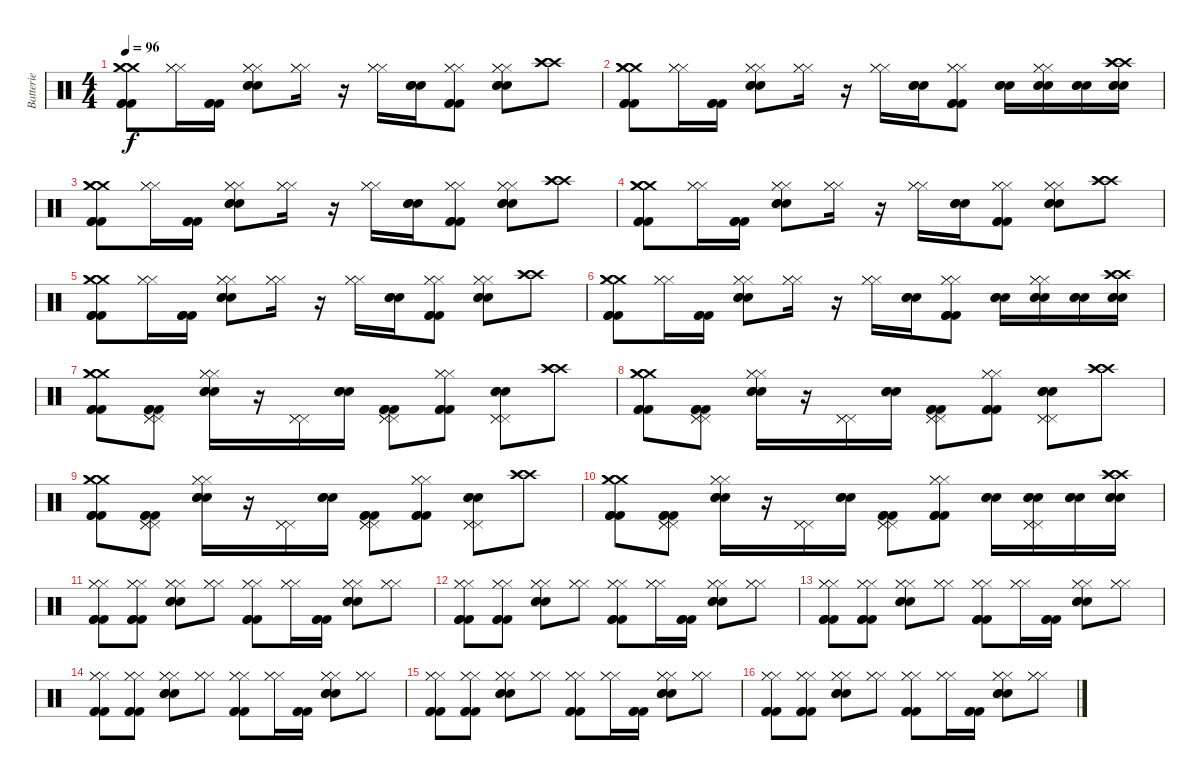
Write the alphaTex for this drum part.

\track ("Batterie" "Batterie") {instrument percussion}
\staff {score}
\articulation defaults
\ts (4 4)
\tempo 96
\clef neutral
\ks c
("Crash medium (hit)" "Crash medium (hit)" "Crash medium (hit)" "Kick (hit) 2" "Kick (hit) 2" "Kick (hit) 2").8{dy f} ("Hi-Hat (closed)" "Hi-Hat (closed)" "Hi-Hat (closed)").16 ("Kick (hit) 2" "Kick (hit) 2" "Kick (hit) 2").16 ("Hi-Hat (closed)" "Hi-Hat (closed)" "Hi-Hat (closed)" "Electric Snare (hit)" "Electric Snare (hit)" "Electric Snare (hit)").8 ("Hi-Hat (closed)" "Hi-Hat (closed)" "Hi-Hat (closed)").16 r.16 ("Hi-Hat (closed)" "Hi-Hat (closed)" "Hi-Hat (closed)").16 ("Electric Snare (hit)" "Electric Snare (hit)" "Electric Snare (hit)").16 ("Hi-Hat (closed)" "Hi-Hat (closed)" "Hi-Hat (closed)" "Kick (hit) 2" "Kick (hit) 2" "Kick (hit) 2").8 ("Hi-Hat (closed)" "Hi-Hat (closed)" "Hi-Hat (closed)" "Electric Snare (hit)" "Electric Snare (hit)" "Electric Snare (hit)").8 ("Crash high (hit)" "Crash high (hit)" "Crash high (hit)").8 |
("Crash medium (hit)" "Crash medium (hit)" "Crash medium (hit)" "Kick (hit) 2" "Kick (hit) 2" "Kick (hit) 2").8 ("Hi-Hat (closed)" "Hi-Hat (closed)" "Hi-Hat (closed)").16 ("Kick (hit) 2" "Kick (hit) 2" "Kick (hit) 2").16 ("Hi-Hat (closed)" "Hi-Hat (closed)" "Hi-Hat (closed)" "Electric Snare (hit)" "Electric Snare (hit)" "Electric Snare (hit)").8 ("Hi-Hat (closed)" "Hi-Hat (closed)" "Hi-Hat (closed)").16 r.16 ("Hi-Hat (closed)" "Hi-Hat (closed)" "Hi-Hat (closed)").16 ("Electric Snare (hit)" "Electric Snare (hit)" "Electric Snare (hit)").16 ("Hi-Hat (closed)" "Hi-Hat (closed)" "Hi-Hat (closed)" "Kick (hit) 2" "Kick (hit) 2" "Kick (hit) 2").8 ("Electric Snare (hit)" "Electric Snare (hit)" "Electric Snare (hit)").16 ("Hi-Hat (closed)" "Hi-Hat (closed)" "Hi-Hat (closed)" "Electric Snare (hit)" "Electric Snare (hit)" "Electric Snare (hit)").16 ("Electric Snare (hit)" "Electric Snare (hit)" "Electric Snare (hit)").16 ("Crash high (hit)" "Crash high (hit)" "Crash high (hit)" "Electric Snare (hit)" "Electric Snare (hit)" "Electric Snare (hit)").16 |
("Crash medium (hit)" "Crash medium (hit)" "Crash medium (hit)" "Kick (hit) 2" "Kick (hit) 2" "Kick (hit) 2").8 ("Hi-Hat (closed)" "Hi-Hat (closed)" "Hi-Hat (closed)").16 ("Kick (hit) 2" "Kick (hit) 2" "Kick (hit) 2").16 ("Hi-Hat (closed)" "Hi-Hat (closed)" "Hi-Hat (closed)" "Electric Snare (hit)" "Electric Snare (hit)" "Electric Snare (hit)").8 ("Hi-Hat (closed)" "Hi-Hat (closed)" "Hi-Hat (closed)").16 r.16 ("Hi-Hat (closed)" "Hi-Hat (closed)" "Hi-Hat (closed)").16 ("Electric Snare (hit)" "Electric Snare (hit)" "Electric Snare (hit)").16 ("Hi-Hat (closed)" "Hi-Hat (closed)" "Hi-Hat (closed)" "Kick (hit) 2" "Kick (hit) 2" "Kick (hit) 2").8 ("Hi-Hat (closed)" "Hi-Hat (closed)" "Hi-Hat (closed)" "Electric Snare (hit)" "Electric Snare (hit)" "Electric Snare (hit)").8 ("Crash high (hit)" "Crash high (hit)" "Crash high (hit)").8 |
("Crash medium (hit)" "Crash medium (hit)" "Crash medium (hit)" "Kick (hit) 2" "Kick (hit) 2" "Kick (hit) 2").8 ("Hi-Hat (closed)" "Hi-Hat (closed)" "Hi-Hat (closed)").16 ("Kick (hit) 2" "Kick (hit) 2" "Kick (hit) 2").16 ("Hi-Hat (closed)" "Hi-Hat (closed)" "Hi-Hat (closed)" "Electric Snare (hit)" "Electric Snare (hit)" "Electric Snare (hit)").8 ("Hi-Hat (closed)" "Hi-Hat (closed)" "Hi-Hat (closed)").16 r.16 ("Hi-Hat (closed)" "Hi-Hat (closed)" "Hi-Hat (closed)").16 ("Electric Snare (hit)" "Electric Snare (hit)" "Electric Snare (hit)").16 ("Hi-Hat (closed)" "Hi-Hat (closed)" "Hi-Hat (closed)" "Kick (hit) 2" "Kick (hit) 2" "Kick (hit) 2").8 ("Hi-Hat (closed)" "Hi-Hat (closed)" "Hi-Hat (closed)" "Electric Snare (hit)" "Electric Snare (hit)" "Electric Snare (hit)").8 ("Crash high (hit)" "Crash high (hit)" "Crash high (hit)").8 |
("Crash medium (hit)" "Crash medium (hit)" "Crash medium (hit)" "Kick (hit) 2" "Kick (hit) 2" "Kick (hit) 2").8 ("Hi-Hat (closed)" "Hi-Hat (closed)" "Hi-Hat (closed)").16 ("Kick (hit) 2" "Kick (hit) 2" "Kick (hit) 2").16 ("Hi-Hat (closed)" "Hi-Hat (closed)" "Hi-Hat (closed)" "Electric Snare (hit)" "Electric Snare (hit)" "Electric Snare (hit)").8 ("Hi-Hat (closed)" "Hi-Hat (closed)" "Hi-Hat (closed)").16 r.16 ("Hi-Hat (closed)" "Hi-Hat (closed)" "Hi-Hat (closed)").16 ("Electric Snare (hit)" "Electric Snare (hit)" "Electric Snare (hit)").16 ("Hi-Hat (closed)" "Hi-Hat (closed)" "Hi-Hat (closed)" "Kick (hit) 2" "Kick (hit) 2" "Kick (hit) 2").8 ("Hi-Hat (closed)" "Hi-Hat (closed)" "Hi-Hat (closed)" "Electric Snare (hit)" "Electric Snare (hit)" "Electric Snare (hit)").8 ("Crash high (hit)" "Crash high (hit)" "Crash high (hit)").8 |
("Crash medium (hit)" "Crash medium (hit)" "Crash medium (hit)" "Kick (hit) 2" "Kick (hit) 2" "Kick (hit) 2").8 ("Hi-Hat (closed)" "Hi-Hat (closed)" "Hi-Hat (closed)").16 ("Kick (hit) 2" "Kick (hit) 2" "Kick (hit) 2").16 ("Hi-Hat (closed)" "Hi-Hat (closed)" "Hi-Hat (closed)" "Electric Snare (hit)" "Electric Snare (hit)" "Electric Snare (hit)").8 ("Hi-Hat (closed)" "Hi-Hat (closed)" "Hi-Hat (closed)").16 r.16 ("Hi-Hat (closed)" "Hi-Hat (closed)" "Hi-Hat (closed)").16 ("Electric Snare (hit)" "Electric Snare (hit)" "Electric Snare (hit)").16 ("Hi-Hat (closed)" "Hi-Hat (closed)" "Hi-Hat (closed)" "Kick (hit) 2" "Kick (hit) 2" "Kick (hit) 2").8 ("Electric Snare (hit)" "Electric Snare (hit)" "Electric Snare (hit)").16 ("Hi-Hat (closed)" "Hi-Hat (closed)" "Hi-Hat (closed)" "Electric Snare (hit)" "Electric Snare (hit)" "Electric Snare (hit)").16 ("Electric Snare (hit)" "Electric Snare (hit)" "Electric Snare (hit)").16 ("Crash high (hit)" "Crash high (hit)" "Crash high (hit)" "Electric Snare (hit)" "Electric Snare (hit)" "Electric Snare (hit)").16 |
("Crash medium (hit)" "Crash medium (hit)" "Crash medium (hit)" "Kick (hit) 2" "Kick (hit) 2" "Kick (hit) 2").8 ("Pedal Hi-Hat (hit)" "Pedal Hi-Hat (hit)" "Pedal Hi-Hat (hit)" "Kick (hit) 2" "Kick (hit) 2" "Kick (hit) 2").8 ("Hi-Hat (closed)" "Hi-Hat (closed)" "Hi-Hat (closed)" "Electric Snare (hit)" "Electric Snare (hit)" "Electric Snare (hit)").16 r.16 ("Pedal Hi-Hat (hit)" "Pedal Hi-Hat (hit)" "Pedal Hi-Hat (hit)").16 ("Electric Snare (hit)" "Electric Snare (hit)" "Electric Snare (hit)").16 ("Pedal Hi-Hat (hit)" "Pedal Hi-Hat (hit)" "Pedal Hi-Hat (hit)" "Kick (hit) 2" "Kick (hit) 2" "Kick (hit) 2").8 ("Hi-Hat (closed)" "Hi-Hat (closed)" "Hi-Hat (closed)" "Kick (hit) 2" "Kick (hit) 2" "Kick (hit) 2").8 ("Pedal Hi-Hat (hit)" "Pedal Hi-Hat (hit)" "Pedal Hi-Hat (hit)" "Electric Snare (hit)" "Electric Snare (hit)" "Electric Snare (hit)").8 ("Crash high (hit)" "Crash high (hit)" "Crash high (hit)").8 |
("Crash medium (hit)" "Crash medium (hit)" "Crash medium (hit)" "Kick (hit) 2" "Kick (hit) 2" "Kick (hit) 2").8 ("Pedal Hi-Hat (hit)" "Pedal Hi-Hat (hit)" "Pedal Hi-Hat (hit)" "Kick (hit) 2" "Kick (hit) 2" "Kick (hit) 2").8 ("Hi-Hat (closed)" "Hi-Hat (closed)" "Hi-Hat (closed)" "Electric Snare (hit)" "Electric Snare (hit)" "Electric Snare (hit)").16 r.16 ("Pedal Hi-Hat (hit)" "Pedal Hi-Hat (hit)" "Pedal Hi-Hat (hit)").16 ("Electric Snare (hit)" "Electric Snare (hit)" "Electric Snare (hit)").16 ("Pedal Hi-Hat (hit)" "Pedal Hi-Hat (hit)" "Pedal Hi-Hat (hit)" "Kick (hit) 2" "Kick (hit) 2" "Kick (hit) 2").8 ("Hi-Hat (closed)" "Hi-Hat (closed)" "Hi-Hat (closed)" "Kick (hit) 2" "Kick (hit) 2" "Kick (hit) 2").8 ("Pedal Hi-Hat (hit)" "Pedal Hi-Hat (hit)" "Pedal Hi-Hat (hit)" "Electric Snare (hit)" "Electric Snare (hit)" "Electric Snare (hit)").8 ("Crash high (hit)" "Crash high (hit)" "Crash high (hit)").8 |
("Crash medium (hit)" "Crash medium (hit)" "Crash medium (hit)" "Kick (hit) 2" "Kick (hit) 2" "Kick (hit) 2").8 ("Pedal Hi-Hat (hit)" "Pedal Hi-Hat (hit)" "Pedal Hi-Hat (hit)" "Kick (hit) 2" "Kick (hit) 2" "Kick (hit) 2").8 ("Hi-Hat (closed)" "Hi-Hat (closed)" "Hi-Hat (closed)" "Electric Snare (hit)" "Electric Snare (hit)" "Electric Snare (hit)").16 r.16 ("Pedal Hi-Hat (hit)" "Pedal Hi-Hat (hit)" "Pedal Hi-Hat (hit)").16 ("Electric Snare (hit)" "Electric Snare (hit)" "Electric Snare (hit)").16 ("Pedal Hi-Hat (hit)" "Pedal Hi-Hat (hit)" "Pedal Hi-Hat (hit)" "Kick (hit) 2" "Kick (hit) 2" "Kick (hit) 2").8 ("Hi-Hat (closed)" "Hi-Hat (closed)" "Hi-Hat (closed)" "Kick (hit) 2" "Kick (hit) 2" "Kick (hit) 2").8 ("Pedal Hi-Hat (hit)" "Pedal Hi-Hat (hit)" "Pedal Hi-Hat (hit)" "Electric Snare (hit)" "Electric Snare (hit)" "Electric Snare (hit)").8 ("Crash high (hit)" "Crash high (hit)" "Crash high (hit)").8 |
("Crash medium (hit)" "Crash medium (hit)" "Crash medium (hit)" "Kick (hit) 2" "Kick (hit) 2" "Kick (hit) 2").8 ("Pedal Hi-Hat (hit)" "Pedal Hi-Hat (hit)" "Pedal Hi-Hat (hit)" "Kick (hit) 2" "Kick (hit) 2" "Kick (hit) 2").8 ("Hi-Hat (closed)" "Hi-Hat (closed)" "Hi-Hat (closed)" "Electric Snare (hit)" "Electric Snare (hit)" "Electric Snare (hit)").16 r.16 ("Pedal Hi-Hat (hit)" "Pedal Hi-Hat (hit)" "Pedal Hi-Hat (hit)").16 ("Electric Snare (hit)" "Electric Snare (hit)" "Electric Snare (hit)").16 ("Pedal Hi-Hat (hit)" "Pedal Hi-Hat (hit)" "Pedal Hi-Hat (hit)" "Kick (hit) 2" "Kick (hit) 2" "Kick (hit) 2").8 ("Hi-Hat (closed)" "Hi-Hat (closed)" "Hi-Hat (closed)" "Kick (hit) 2" "Kick (hit) 2" "Kick (hit) 2").8 ("Electric Snare (hit)" "Electric Snare (hit)" "Electric Snare (hit)").16 ("Pedal Hi-Hat (hit)" "Pedal Hi-Hat (hit)" "Pedal Hi-Hat (hit)" "Electric Snare (hit)" "Electric Snare (hit)" "Electric Snare (hit)").16 ("Electric Snare (hit)" "Electric Snare (hit)" "Electric Snare (hit)").16 ("Crash high (hit)" "Crash high (hit)" "Crash high (hit)" "Electric Snare (hit)" "Electric Snare (hit)" "Electric Snare (hit)").16 |
("Hi-Hat (closed)" "Hi-Hat (closed)" "Hi-Hat (closed)" "Kick (hit) 2" "Kick (hit) 2" "Kick (hit) 2").8 ("Hi-Hat (closed)" "Hi-Hat (closed)" "Hi-Hat (closed)" "Kick (hit) 2" "Kick (hit) 2" "Kick (hit) 2").8 ("Hi-Hat (closed)" "Hi-Hat (closed)" "Hi-Hat (closed)" "Electric Snare (hit)" "Electric Snare (hit)" "Electric Snare (hit)").8 ("Hi-Hat (closed)" "Hi-Hat (closed)" "Hi-Hat (closed)").8 ("Hi-Hat (closed)" "Hi-Hat (closed)" "Hi-Hat (closed)" "Kick (hit) 2" "Kick (hit) 2" "Kick (hit) 2").8 ("Hi-Hat (closed)" "Hi-Hat (closed)" "Hi-Hat (closed)").16 ("Kick (hit) 2" "Kick (hit) 2" "Kick (hit) 2").16 ("Hi-Hat (closed)" "Hi-Hat (closed)" "Hi-Hat (closed)" "Electric Snare (hit)" "Electric Snare (hit)" "Electric Snare (hit)").8 ("Hi-Hat (closed)" "Hi-Hat (closed)" "Hi-Hat (closed)").8 |
("Hi-Hat (closed)" "Hi-Hat (closed)" "Hi-Hat (closed)" "Kick (hit) 2" "Kick (hit) 2" "Kick (hit) 2").8 ("Hi-Hat (closed)" "Hi-Hat (closed)" "Hi-Hat (closed)" "Kick (hit) 2" "Kick (hit) 2" "Kick (hit) 2").8 ("Hi-Hat (closed)" "Hi-Hat (closed)" "Hi-Hat (closed)" "Electric Snare (hit)" "Electric Snare (hit)" "Electric Snare (hit)").8 ("Hi-Hat (closed)" "Hi-Hat (closed)" "Hi-Hat (closed)").8 ("Hi-Hat (closed)" "Hi-Hat (closed)" "Hi-Hat (closed)" "Kick (hit) 2" "Kick (hit) 2" "Kick (hit) 2").8 ("Hi-Hat (closed)" "Hi-Hat (closed)" "Hi-Hat (closed)").16 ("Kick (hit) 2" "Kick (hit) 2" "Kick (hit) 2").16 ("Hi-Hat (closed)" "Hi-Hat (closed)" "Hi-Hat (closed)" "Electric Snare (hit)" "Electric Snare (hit)" "Electric Snare (hit)").8 ("Hi-Hat (closed)" "Hi-Hat (closed)" "Hi-Hat (closed)").8 |
("Hi-Hat (closed)" "Hi-Hat (closed)" "Hi-Hat (closed)" "Kick (hit) 2" "Kick (hit) 2" "Kick (hit) 2").8 ("Hi-Hat (closed)" "Hi-Hat (closed)" "Hi-Hat (closed)" "Kick (hit) 2" "Kick (hit) 2" "Kick (hit) 2").8 ("Hi-Hat (closed)" "Hi-Hat (closed)" "Hi-Hat (closed)" "Electric Snare (hit)" "Electric Snare (hit)" "Electric Snare (hit)").8 ("Hi-Hat (closed)" "Hi-Hat (closed)" "Hi-Hat (closed)").8 ("Hi-Hat (closed)" "Hi-Hat (closed)" "Hi-Hat (closed)" "Kick (hit) 2" "Kick (hit) 2" "Kick (hit) 2").8 ("Hi-Hat (closed)" "Hi-Hat (closed)" "Hi-Hat (closed)").16 ("Kick (hit) 2" "Kick (hit) 2" "Kick (hit) 2").16 ("Hi-Hat (closed)" "Hi-Hat (closed)" "Hi-Hat (closed)" "Electric Snare (hit)" "Electric Snare (hit)" "Electric Snare (hit)").8 ("Hi-Hat (closed)" "Hi-Hat (closed)" "Hi-Hat (closed)").8 |
("Hi-Hat (closed)" "Hi-Hat (closed)" "Hi-Hat (closed)" "Kick (hit) 2" "Kick (hit) 2" "Kick (hit) 2").8 ("Hi-Hat (closed)" "Hi-Hat (closed)" "Hi-Hat (closed)" "Kick (hit) 2" "Kick (hit) 2" "Kick (hit) 2").8 ("Hi-Hat (closed)" "Hi-Hat (closed)" "Hi-Hat (closed)" "Electric Snare (hit)" "Electric Snare (hit)" "Electric Snare (hit)").8 ("Hi-Hat (closed)" "Hi-Hat (closed)" "Hi-Hat (closed)").8 ("Hi-Hat (closed)" "Hi-Hat (closed)" "Hi-Hat (closed)" "Kick (hit) 2" "Kick (hit) 2" "Kick (hit) 2").8 ("Hi-Hat (closed)" "Hi-Hat (closed)" "Hi-Hat (closed)").16 ("Kick (hit) 2" "Kick (hit) 2" "Kick (hit) 2").16 ("Hi-Hat (closed)" "Hi-Hat (closed)" "Hi-Hat (closed)" "Electric Snare (hit)" "Electric Snare (hit)" "Electric Snare (hit)").8 ("Hi-Hat (closed)" "Hi-Hat (closed)" "Hi-Hat (closed)").8 |
("Hi-Hat (closed)" "Hi-Hat (closed)" "Hi-Hat (closed)" "Kick (hit) 2" "Kick (hit) 2" "Kick (hit) 2").8 ("Hi-Hat (closed)" "Hi-Hat (closed)" "Hi-Hat (closed)" "Kick (hit) 2" "Kick (hit) 2" "Kick (hit) 2").8 ("Hi-Hat (closed)" "Hi-Hat (closed)" "Hi-Hat (closed)" "Electric Snare (hit)" "Electric Snare (hit)" "Electric Snare (hit)").8 ("Hi-Hat (closed)" "Hi-Hat (closed)" "Hi-Hat (closed)").8 ("Hi-Hat (closed)" "Hi-Hat (closed)" "Hi-Hat (closed)" "Kick (hit) 2" "Kick (hit) 2" "Kick (hit) 2").8 ("Hi-Hat (closed)" "Hi-Hat (closed)" "Hi-Hat (closed)").16 ("Kick (hit) 2" "Kick (hit) 2" "Kick (hit) 2").16 ("Hi-Hat (closed)" "Hi-Hat (closed)" "Hi-Hat (closed)" "Electric Snare (hit)" "Electric Snare (hit)" "Electric Snare (hit)").8 ("Hi-Hat (closed)" "Hi-Hat (closed)" "Hi-Hat (closed)").8 |
("Hi-Hat (closed)" "Hi-Hat (closed)" "Hi-Hat (closed)" "Kick (hit) 2" "Kick (hit) 2" "Kick (hit) 2").8 ("Hi-Hat (closed)" "Hi-Hat (closed)" "Hi-Hat (closed)" "Kick (hit) 2" "Kick (hit) 2" "Kick (hit) 2").8 ("Hi-Hat (closed)" "Hi-Hat (closed)" "Hi-Hat (closed)" "Electric Snare (hit)" "Electric Snare (hit)" "Electric Snare (hit)").8 ("Hi-Hat (closed)" "Hi-Hat (closed)" "Hi-Hat (closed)").8 ("Hi-Hat (closed)" "Hi-Hat (closed)" "Hi-Hat (closed)" "Kick (hit) 2" "Kick (hit) 2" "Kick (hit) 2").8 ("Hi-Hat (closed)" "Hi-Hat (closed)" "Hi-Hat (closed)").16 ("Kick (hit) 2" "Kick (hit) 2" "Kick (hit) 2").16 ("Hi-Hat (closed)" "Hi-Hat (closed)" "Hi-Hat (closed)" "Electric Snare (hit)" "Electric Snare (hit)" "Electric Snare (hit)").8 ("Hi-Hat (closed)" "Hi-Hat (closed)" "Hi-Hat (closed)").8
